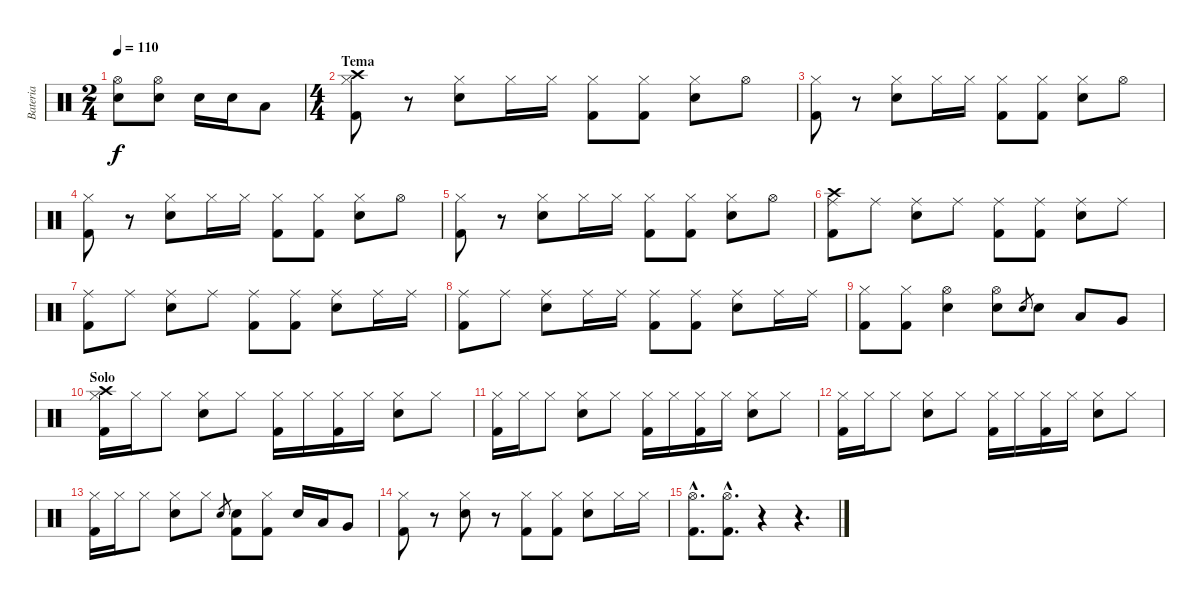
\track ("Bateria" "Bateria") {instrument percussion}
\staff {score}
\articulation defaults
\ts (2 4)
\tempo 110
\clef neutral
\ks c
("Hi-Hat (open)" "Electric Snare (hit)").8{dy f} ("Hi-Hat (open)" "Electric Snare (hit)").8 "Electric Snare (hit)".16 "Electric Snare (hit)".16 "Low Tom (hit)".8 |
\ts (4 4)
\section ("" "Tema")
("Hi-Hat (closed)" "Kick (hit) 2" "Crash high (hit)").8 r.8 ("Hi-Hat (closed)" "Electric Snare (hit)").8 "Hi-Hat (closed)".16 "Hi-Hat (closed)".16 ("Hi-Hat (closed)" "Kick (hit) 2").8 ("Hi-Hat (closed)" "Kick (hit) 2").8 ("Hi-Hat (closed)" "Electric Snare (hit)").8 "Hi-Hat (open)".8 |
("Hi-Hat (closed)" "Kick (hit) 2").8 r.8 ("Hi-Hat (closed)" "Electric Snare (hit)").8 "Hi-Hat (closed)".16 "Hi-Hat (closed)".16 ("Hi-Hat (closed)" "Kick (hit) 2").8 ("Hi-Hat (closed)" "Kick (hit) 2").8 ("Hi-Hat (closed)" "Electric Snare (hit)").8 "Hi-Hat (open)".8 |
("Hi-Hat (closed)" "Kick (hit) 2").8 r.8 ("Hi-Hat (closed)" "Electric Snare (hit)").8 "Hi-Hat (closed)".16 "Hi-Hat (closed)".16 ("Hi-Hat (closed)" "Kick (hit) 2").8 ("Hi-Hat (closed)" "Kick (hit) 2").8 ("Hi-Hat (closed)" "Electric Snare (hit)").8 "Hi-Hat (open)".8 |
("Hi-Hat (closed)" "Kick (hit) 2").8 r.8 ("Hi-Hat (closed)" "Electric Snare (hit)").8 "Hi-Hat (closed)".16 "Hi-Hat (closed)".16 ("Hi-Hat (closed)" "Kick (hit) 2").8 ("Hi-Hat (closed)" "Kick (hit) 2").8 ("Hi-Hat (closed)" "Electric Snare (hit)").8 "Hi-Hat (open)".8 |
("Ride (middle)" "Kick (hit) 2" "Crash high (hit)").8 "Ride (middle)".8 ("Ride (middle)" "Electric Snare (hit)").8 "Ride (middle)".8 ("Ride (middle)" "Kick (hit) 2").8 ("Ride (middle)" "Kick (hit) 2").8 ("Ride (middle)" "Electric Snare (hit)").8 "Ride (middle)".8 |
("Ride (middle)" "Kick (hit) 2").8 "Ride (middle)".8 ("Ride (middle)" "Electric Snare (hit)").8 "Ride (middle)".8 ("Ride (middle)" "Kick (hit) 2").8 ("Ride (middle)" "Kick (hit) 2").8 ("Ride (middle)" "Electric Snare (hit)").8 "Ride (middle)".16 "Ride (middle)".16 |
("Ride (middle)" "Kick (hit) 2").8 "Ride (middle)".8 ("Ride (middle)" "Electric Snare (hit)").8 "Ride (middle)".16 "Ride (middle)".16 ("Ride (middle)" "Kick (hit) 2").8 ("Ride (middle)" "Kick (hit) 2").8 ("Ride (middle)" "Electric Snare (hit)").8 "Ride (middle)".16 "Ride (middle)".16 |
("Hi-Hat (closed)" "Kick (hit) 2").8 ("Hi-Hat (closed)" "Kick (hit) 2").8 ("Hi-Hat (open)" "Electric Snare (hit)").4 ("Hi-Hat (open)" "Electric Snare (hit)").8 "Electric Snare (hit)".8{gr} "Electric Snare (hit)".8 "Low Tom (hit)".8 "Very Low Tom (hit)".8 |
\section ("" "Solo")
("Hi-Hat (closed)" "Kick (hit) 2" "Crash high (hit)").16 "Hi-Hat (closed)".16 "Hi-Hat (closed)".8 ("Hi-Hat (closed)" "Electric Snare (hit)").8 "Hi-Hat (closed)".8 ("Hi-Hat (closed)" "Kick (hit) 2").16 "Hi-Hat (closed)".16 ("Hi-Hat (closed)" "Kick (hit) 2").16 "Hi-Hat (closed)".16 ("Hi-Hat (closed)" "Electric Snare (hit)").8 "Hi-Hat (closed)".8 |
("Hi-Hat (closed)" "Kick (hit) 2").16 "Hi-Hat (closed)".16 "Hi-Hat (closed)".8 ("Hi-Hat (closed)" "Electric Snare (hit)").8 "Hi-Hat (closed)".8 ("Hi-Hat (closed)" "Kick (hit) 2").16 "Hi-Hat (closed)".16 ("Hi-Hat (closed)" "Kick (hit) 2").16 "Hi-Hat (closed)".16 ("Hi-Hat (closed)" "Electric Snare (hit)").8 "Hi-Hat (closed)".8 |
("Hi-Hat (closed)" "Kick (hit) 2").16 "Hi-Hat (closed)".16 "Hi-Hat (closed)".8 ("Hi-Hat (closed)" "Electric Snare (hit)").8 "Hi-Hat (closed)".8 ("Hi-Hat (closed)" "Kick (hit) 2").16 "Hi-Hat (closed)".16 ("Hi-Hat (closed)" "Kick (hit) 2").16 "Hi-Hat (closed)".16 ("Hi-Hat (closed)" "Electric Snare (hit)").8 "Hi-Hat (closed)".8 |
("Hi-Hat (closed)" "Kick (hit) 2").16 "Hi-Hat (closed)".16 "Hi-Hat (closed)".8 ("Hi-Hat (closed)" "Electric Snare (hit)").8 "Hi-Hat (closed)".8 "Electric Snare (hit)".8{gr} ("Electric Snare (hit)" "Kick (hit) 2").8 ("Hi-Hat (closed)" "Kick (hit) 2").8 "Electric Snare (hit)".16 "Low Tom (hit)".16 "Very Low Tom (hit)".8 |
("Hi-Hat (closed)" "Kick (hit) 2").8 r.8 ("Hi-Hat (closed)" "Electric Snare (hit)").8 r.8 ("Hi-Hat (closed)" "Kick (hit) 2").8 ("Hi-Hat (closed)" "Kick (hit) 2").8 ("Hi-Hat (closed)" "Electric Snare (hit)").8 "Hi-Hat (closed)".16 "Hi-Hat (closed)".16 |
("Hi-Hat (open)"{hac} "Kick (hit) 2"{hac}).8{d} ("Hi-Hat (open)"{hac} "Kick (hit) 2"{hac}).8{d} r.4 r.4{d}
